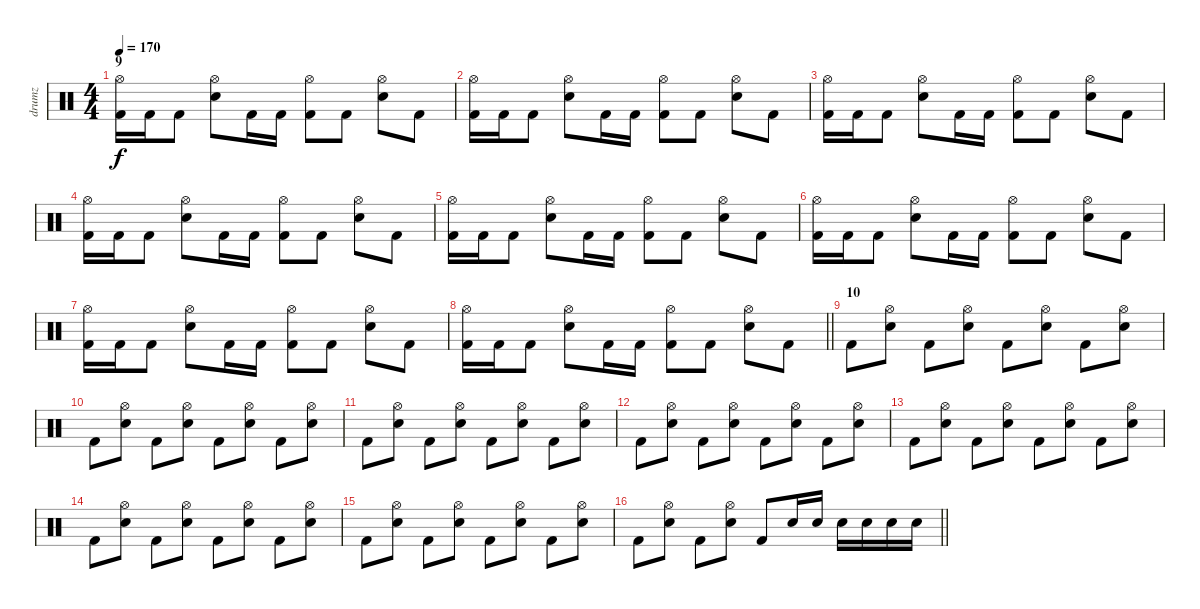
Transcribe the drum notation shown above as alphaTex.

\track ("drumz" "drumz") {instrument percussion}
\staff {score}
\articulation defaults
\ts (4 4)
\section ("" "9")
\tempo 170
\clef neutral
\ks c
("Hi-Hat (open)" "Kick (hit) 2").16{dy f} "Kick (hit) 2".16 "Kick (hit) 2".8 ("Hi-Hat (open)" "Electric Snare (hit)").8 "Kick (hit) 2".16 "Kick (hit) 2".16 ("Hi-Hat (open)" "Kick (hit) 2").8 "Kick (hit) 2".8 ("Hi-Hat (open)" "Electric Snare (hit)").8 "Kick (hit) 2".8 |
("Hi-Hat (open)" "Kick (hit) 2").16 "Kick (hit) 2".16 "Kick (hit) 2".8 ("Hi-Hat (open)" "Electric Snare (hit)").8 "Kick (hit) 2".16 "Kick (hit) 2".16 ("Hi-Hat (open)" "Kick (hit) 2").8 "Kick (hit) 2".8 ("Hi-Hat (open)" "Electric Snare (hit)").8 "Kick (hit) 2".8 |
("Hi-Hat (open)" "Kick (hit) 2").16 "Kick (hit) 2".16 "Kick (hit) 2".8 ("Hi-Hat (open)" "Electric Snare (hit)").8 "Kick (hit) 2".16 "Kick (hit) 2".16 ("Hi-Hat (open)" "Kick (hit) 2").8 "Kick (hit) 2".8 ("Hi-Hat (open)" "Electric Snare (hit)").8 "Kick (hit) 2".8 |
("Hi-Hat (open)" "Kick (hit) 2").16 "Kick (hit) 2".16 "Kick (hit) 2".8 ("Hi-Hat (open)" "Electric Snare (hit)").8 "Kick (hit) 2".16 "Kick (hit) 2".16 ("Hi-Hat (open)" "Kick (hit) 2").8 "Kick (hit) 2".8 ("Hi-Hat (open)" "Electric Snare (hit)").8 "Kick (hit) 2".8 |
("Hi-Hat (open)" "Kick (hit) 2").16 "Kick (hit) 2".16 "Kick (hit) 2".8 ("Hi-Hat (open)" "Electric Snare (hit)").8 "Kick (hit) 2".16 "Kick (hit) 2".16 ("Hi-Hat (open)" "Kick (hit) 2").8 "Kick (hit) 2".8 ("Hi-Hat (open)" "Electric Snare (hit)").8 "Kick (hit) 2".8 |
("Hi-Hat (open)" "Kick (hit) 2").16 "Kick (hit) 2".16 "Kick (hit) 2".8 ("Hi-Hat (open)" "Electric Snare (hit)").8 "Kick (hit) 2".16 "Kick (hit) 2".16 ("Hi-Hat (open)" "Kick (hit) 2").8 "Kick (hit) 2".8 ("Hi-Hat (open)" "Electric Snare (hit)").8 "Kick (hit) 2".8 |
("Hi-Hat (open)" "Kick (hit) 2").16 "Kick (hit) 2".16 "Kick (hit) 2".8 ("Hi-Hat (open)" "Electric Snare (hit)").8 "Kick (hit) 2".16 "Kick (hit) 2".16 ("Hi-Hat (open)" "Kick (hit) 2").8 "Kick (hit) 2".8 ("Hi-Hat (open)" "Electric Snare (hit)").8 "Kick (hit) 2".8 |
\barLineRight lightlight
("Hi-Hat (open)" "Kick (hit) 2").16 "Kick (hit) 2".16 "Kick (hit) 2".8 ("Hi-Hat (open)" "Electric Snare (hit)").8 "Kick (hit) 2".16 "Kick (hit) 2".16 ("Hi-Hat (open)" "Kick (hit) 2").8 "Kick (hit) 2".8 ("Hi-Hat (open)" "Electric Snare (hit)").8 "Kick (hit) 2".8 |
\section ("" "10")
"Kick (hit) 2".8 ("Hi-Hat (open)" "Electric Snare (hit)").8 "Kick (hit) 2".8 ("Hi-Hat (open)" "Electric Snare (hit)").8 "Kick (hit) 2".8 ("Hi-Hat (open)" "Electric Snare (hit)").8 "Kick (hit) 2".8 ("Hi-Hat (open)" "Electric Snare (hit)").8 |
"Kick (hit) 2".8 ("Hi-Hat (open)" "Electric Snare (hit)").8 "Kick (hit) 2".8 ("Hi-Hat (open)" "Electric Snare (hit)").8 "Kick (hit) 2".8 ("Hi-Hat (open)" "Electric Snare (hit)").8 "Kick (hit) 2".8 ("Hi-Hat (open)" "Electric Snare (hit)").8 |
"Kick (hit) 2".8 ("Hi-Hat (open)" "Electric Snare (hit)").8 "Kick (hit) 2".8 ("Hi-Hat (open)" "Electric Snare (hit)").8 "Kick (hit) 2".8 ("Hi-Hat (open)" "Electric Snare (hit)").8 "Kick (hit) 2".8 ("Hi-Hat (open)" "Electric Snare (hit)").8 |
"Kick (hit) 2".8 ("Hi-Hat (open)" "Electric Snare (hit)").8 "Kick (hit) 2".8 ("Hi-Hat (open)" "Electric Snare (hit)").8 "Kick (hit) 2".8 ("Hi-Hat (open)" "Electric Snare (hit)").8 "Kick (hit) 2".8 ("Hi-Hat (open)" "Electric Snare (hit)").8 |
"Kick (hit) 2".8 ("Hi-Hat (open)" "Electric Snare (hit)").8 "Kick (hit) 2".8 ("Hi-Hat (open)" "Electric Snare (hit)").8 "Kick (hit) 2".8 ("Hi-Hat (open)" "Electric Snare (hit)").8 "Kick (hit) 2".8 ("Hi-Hat (open)" "Electric Snare (hit)").8 |
"Kick (hit) 2".8 ("Hi-Hat (open)" "Electric Snare (hit)").8 "Kick (hit) 2".8 ("Hi-Hat (open)" "Electric Snare (hit)").8 "Kick (hit) 2".8 ("Hi-Hat (open)" "Electric Snare (hit)").8 "Kick (hit) 2".8 ("Hi-Hat (open)" "Electric Snare (hit)").8 |
"Kick (hit) 2".8 ("Hi-Hat (open)" "Electric Snare (hit)").8 "Kick (hit) 2".8 ("Hi-Hat (open)" "Electric Snare (hit)").8 "Kick (hit) 2".8 ("Hi-Hat (open)" "Electric Snare (hit)").8 "Kick (hit) 2".8 ("Hi-Hat (open)" "Electric Snare (hit)").8 |
\barLineRight lightlight "Kick (hit) 2".8
("Hi-Hat (open)" "Electric Snare (hit)").8 "Kick (hit) 2".8 ("Hi-Hat (open)" "Electric Snare (hit)").8 "Kick (hit) 2".8 "Electric Snare (hit)".16 "Electric Snare (hit)".16 "Electric Snare (hit)".16 "Electric Snare (hit)".16 "Electric Snare (hit)".16 "Electric Snare (hit)".16
